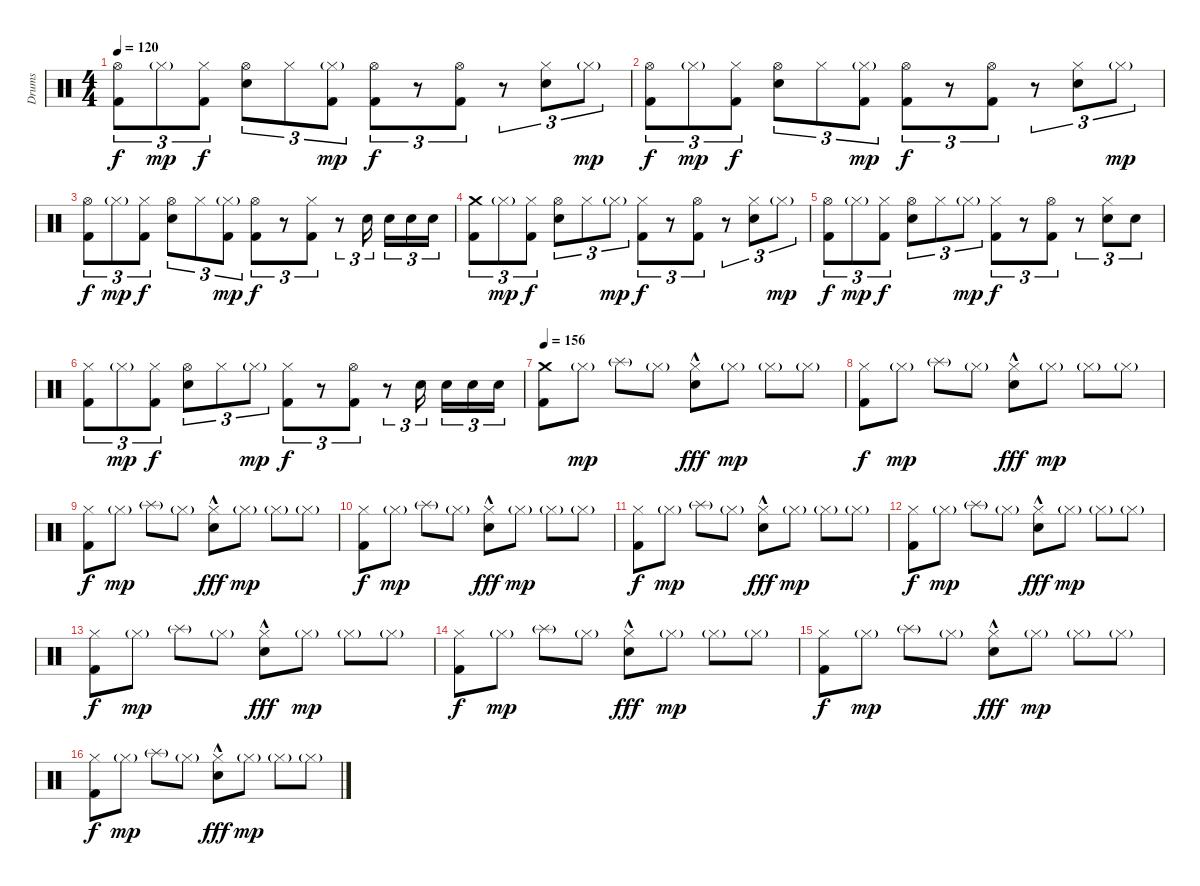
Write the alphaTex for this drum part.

\track ("Drums" "Drums") {instrument percussion}
\staff {score}
\articulation defaults
\ts (4 4)
\tempo 120
\clef neutral
\ks c
("Hi-Hat (open)" "Kick (hit) 2").8{tu (3 2) dy f} "Hi-Hat (closed)"{g}.8{tu (3 2) dy mp} ("Hi-Hat (closed)" "Kick (hit) 2").8{tu (3 2) dy f} ("Hi-Hat (open)" "Electric Snare (hit)").8{tu (3 2)} "Hi-Hat (closed)".8{tu (3 2)} ("Hi-Hat (closed)"{g} "Kick (hit) 2").8{tu (3 2) dy mp} ("Hi-Hat (open)" "Kick (hit) 2").8{tu (3 2) dy f} r.8{tu (3 2)} ("Hi-Hat (open)" "Kick (hit) 2").8{tu (3 2)} r.8{tu (3 2)} ("Hi-Hat (closed)" "Electric Snare (hit)").8{tu (3 2)} "Hi-Hat (closed)"{g}.8{tu (3 2) dy mp} |
("Hi-Hat (open)" "Kick (hit) 2").8{tu (3 2) dy f} "Hi-Hat (closed)"{g}.8{tu (3 2) dy mp} ("Hi-Hat (closed)" "Kick (hit) 2").8{tu (3 2) dy f} ("Hi-Hat (open)" "Electric Snare (hit)").8{tu (3 2)} "Hi-Hat (closed)".8{tu (3 2)} ("Hi-Hat (closed)"{g} "Kick (hit) 2").8{tu (3 2) dy mp} ("Hi-Hat (open)" "Kick (hit) 2").8{tu (3 2) dy f} r.8{tu (3 2)} ("Hi-Hat (open)" "Kick (hit) 2").8{tu (3 2)} r.8{tu (3 2)} ("Hi-Hat (closed)" "Electric Snare (hit)").8{tu (3 2)} "Hi-Hat (closed)"{g}.8{tu (3 2) dy mp} |
("Hi-Hat (open)" "Kick (hit) 2").8{tu (3 2) dy f} "Hi-Hat (closed)"{g}.8{tu (3 2) dy mp} ("Hi-Hat (closed)" "Kick (hit) 2").8{tu (3 2) dy f} ("Hi-Hat (open)" "Electric Snare (hit)").8{tu (3 2)} "Hi-Hat (closed)".8{tu (3 2)} ("Hi-Hat (closed)"{g} "Kick (hit) 2").8{tu (3 2) dy mp} ("Hi-Hat (open)" "Kick (hit) 2").8{tu (3 2) dy f} r.8{tu (3 2)} ("Hi-Hat (closed)" "Kick (hit) 2").8{tu (3 2)} r.8{tu (3 2)} "Electric Snare (hit)".16{tu (3 2) beam splitsecondary} "Electric Snare (hit)".16{tu (3 2)} "Electric Snare (hit)".16{tu (3 2)} "Electric Snare (hit)".16{tu (3 2)} |
("Crash medium (hit)" "Kick (hit) 2").8{tu (3 2)} "Hi-Hat (closed)"{g}.8{tu (3 2) dy mp} ("Hi-Hat (closed)" "Kick (hit) 2").8{tu (3 2) dy f} ("Hi-Hat (open)" "Electric Snare (hit)").8{tu (3 2)} "Hi-Hat (closed)".8{tu (3 2)} "Hi-Hat (closed)"{g}.8{tu (3 2) dy mp} ("Hi-Hat (closed)" "Kick (hit) 2").8{tu (3 2) dy f} r.8{tu (3 2)} ("Hi-Hat (open)" "Kick (hit) 2").8{tu (3 2)} r.8{tu (3 2)} ("Hi-Hat (closed)" "Electric Snare (hit)").8{tu (3 2)} "Hi-Hat (closed)"{g}.8{tu (3 2) dy mp} |
("Hi-Hat (open)" "Kick (hit) 2").8{tu (3 2) dy f} "Hi-Hat (closed)"{g}.8{tu (3 2) dy mp} ("Hi-Hat (closed)" "Kick (hit) 2").8{tu (3 2) dy f} ("Hi-Hat (open)" "Electric Snare (hit)").8{tu (3 2)} "Hi-Hat (closed)".8{tu (3 2)} "Hi-Hat (closed)"{g}.8{tu (3 2) dy mp} ("Hi-Hat (closed)" "Kick (hit) 2").8{tu (3 2) dy f} r.8{tu (3 2)} ("Hi-Hat (open)" "Kick (hit) 2").8{tu (3 2)} r.8{tu (3 2)} ("Hi-Hat (closed)" "Electric Snare (hit)").8{tu (3 2)} "Electric Snare (hit)".8{tu (3 2)} |
("Hi-Hat (closed)" "Kick (hit) 2").8{tu (3 2)} "Hi-Hat (closed)"{g}.8{tu (3 2) dy mp} ("Hi-Hat (closed)" "Kick (hit) 2").8{tu (3 2) dy f} ("Hi-Hat (open)" "Electric Snare (hit)").8{tu (3 2)} "Hi-Hat (closed)".8{tu (3 2)} "Hi-Hat (closed)"{g}.8{tu (3 2) dy mp} ("Hi-Hat (closed)" "Kick (hit) 2").8{tu (3 2) dy f} r.8{tu (3 2)} ("Hi-Hat (open)" "Kick (hit) 2").8{tu (3 2)} r.8{tu (3 2)} "Electric Snare (hit)".16{tu (3 2) beam splitsecondary} "Electric Snare (hit)".16{tu (3 2)} "Electric Snare (hit)".16{tu (3 2)} "Electric Snare (hit)".16{tu (3 2)} |
\tempo 156
("Crash medium (hit)" "Kick (hit) 2").8{volume 9} "Hi-Hat (closed)"{g}.8{dy mp} "Splash (hit)"{g}.8 "Hi-Hat (closed)"{g}.8 ("Hi-Hat (closed)" "Electric Snare (hit)"{hac}).8{dy fff} "Hi-Hat (closed)"{g}.8{dy mp} "Hi-Hat (closed)"{g}.8 "Hi-Hat (closed)"{g}.8 |
("Hi-Hat (closed)" "Kick (hit) 2").8{dy f} "Hi-Hat (closed)"{g}.8{dy mp} "Splash (hit)"{g}.8 "Hi-Hat (closed)"{g}.8 ("Hi-Hat (closed)" "Electric Snare (hit)"{hac}).8{dy fff} "Hi-Hat (closed)"{g}.8{dy mp} "Hi-Hat (closed)"{g}.8 "Hi-Hat (closed)"{g}.8 |
("Hi-Hat (closed)" "Kick (hit) 2").8{dy f volume 8} "Hi-Hat (closed)"{g}.8{dy mp} "Splash (hit)"{g}.8 "Hi-Hat (closed)"{g}.8 ("Hi-Hat (closed)" "Electric Snare (hit)"{hac}).8{dy fff} "Hi-Hat (closed)"{g}.8{dy mp} "Hi-Hat (closed)"{g}.8 "Hi-Hat (closed)"{g}.8 |
("Hi-Hat (closed)" "Kick (hit) 2").8{dy f} "Hi-Hat (closed)"{g}.8{dy mp} "Splash (hit)"{g}.8 "Hi-Hat (closed)"{g}.8 ("Hi-Hat (closed)" "Electric Snare (hit)"{hac}).8{dy fff} "Hi-Hat (closed)"{g}.8{dy mp} "Hi-Hat (closed)"{g}.8 "Hi-Hat (closed)"{g}.8 |
("Hi-Hat (closed)" "Kick (hit) 2").8{dy f volume 7} "Hi-Hat (closed)"{g}.8{dy mp} "Splash (hit)"{g}.8 "Hi-Hat (closed)"{g}.8 ("Hi-Hat (closed)" "Electric Snare (hit)"{hac}).8{dy fff} "Hi-Hat (closed)"{g}.8{dy mp} "Hi-Hat (closed)"{g}.8 "Hi-Hat (closed)"{g}.8 |
("Hi-Hat (closed)" "Kick (hit) 2").8{dy f} "Hi-Hat (closed)"{g}.8{dy mp} "Splash (hit)"{g}.8 "Hi-Hat (closed)"{g}.8 ("Hi-Hat (closed)" "Electric Snare (hit)"{hac}).8{dy fff} "Hi-Hat (closed)"{g}.8{dy mp} "Hi-Hat (closed)"{g}.8 "Hi-Hat (closed)"{g}.8 |
("Hi-Hat (closed)" "Kick (hit) 2").8{dy f volume 3} "Hi-Hat (closed)"{g}.8{dy mp} "Splash (hit)"{g}.8 "Hi-Hat (closed)"{g}.8 ("Hi-Hat (closed)" "Electric Snare (hit)"{hac}).8{dy fff} "Hi-Hat (closed)"{g}.8{dy mp} "Hi-Hat (closed)"{g}.8 "Hi-Hat (closed)"{g}.8 |
("Hi-Hat (closed)" "Kick (hit) 2").8{dy f} "Hi-Hat (closed)"{g}.8{dy mp} "Splash (hit)"{g}.8 "Hi-Hat (closed)"{g}.8 ("Hi-Hat (closed)" "Electric Snare (hit)"{hac}).8{dy fff} "Hi-Hat (closed)"{g}.8{dy mp} "Hi-Hat (closed)"{g}.8 "Hi-Hat (closed)"{g}.8 |
("Hi-Hat (closed)" "Kick (hit) 2").8{dy f} "Hi-Hat (closed)"{g}.8{dy mp} "Splash (hit)"{g}.8 "Hi-Hat (closed)"{g}.8 ("Hi-Hat (closed)" "Electric Snare (hit)"{hac}).8{dy fff} "Hi-Hat (closed)"{g}.8{dy mp} "Hi-Hat (closed)"{g}.8 "Hi-Hat (closed)"{g}.8 |
("Hi-Hat (closed)" "Kick (hit) 2").8{dy f} "Hi-Hat (closed)"{g}.8{dy mp} "Splash (hit)"{g}.8 "Hi-Hat (closed)"{g}.8 ("Hi-Hat (closed)" "Electric Snare (hit)"{hac}).8{dy fff} "Hi-Hat (closed)"{g}.8{dy mp} "Hi-Hat (closed)"{g}.8 "Hi-Hat (closed)"{g}.8
